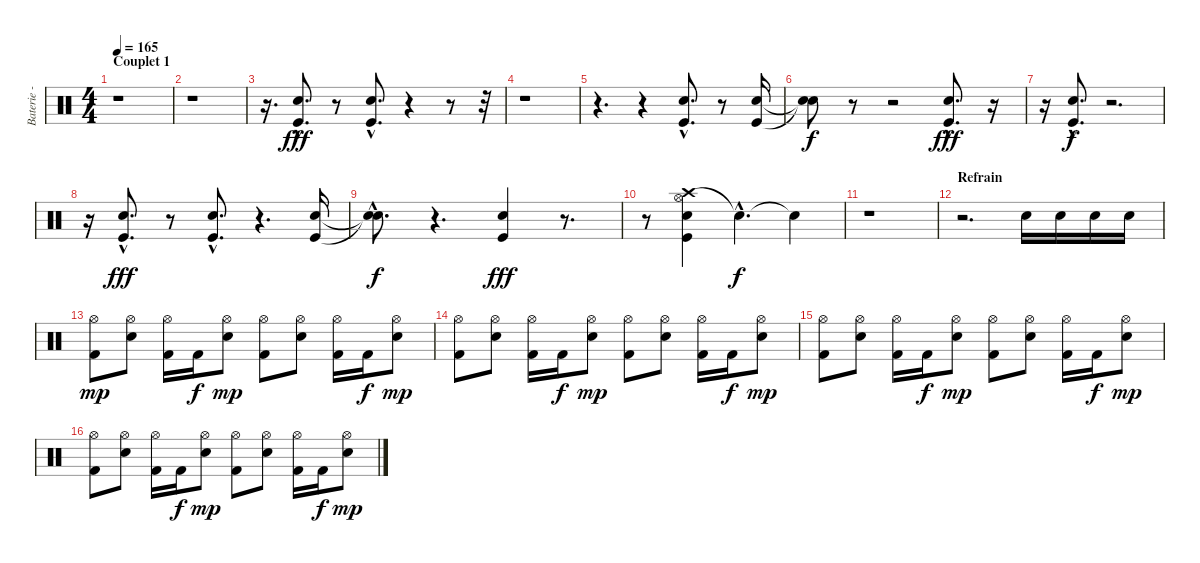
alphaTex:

\track ("Baterie - Guillaume" "Baterie - ") {instrument percussion}
\staff {score}
\articulation defaults
\ts (4 4)
\section ("" "Couplet 1")
\tempo 165
\clef neutral
\ks c
r.1{dy fff} |
r.1 |
r.16{d} ("Snare (hit) 2"{hac} "Kick (hit)"{hac}).8{d} r.8 ("Snare (hit) 2"{hac} "Kick (hit)"{hac}).8{d} r.4 r.8 r.32 |
r.1 |
r.4{d} r.4 ("Snare (hit) 2"{hac} "Kick (hit)"{hac}).8{d} r.8 ("Snare (hit) 2" "Kick (hit)").16 |
("Snare (hit)"{t} "Snare (hit)"{t}).8{dy f} r.8 r.2 ("Snare (hit) 2"{hac} "Kick (hit)"{hac}).8{d dy fff} r.16 |
r.16 ("Snare (hit) 2"{hac} "Kick (hit)"{hac}).8{d dy f} r.2{d} |
r.16 ("Snare (hit) 2"{hac} "Kick (hit)"{hac}).8{d dy fff} r.8 ("Snare (hit) 2"{hac} "Kick (hit)"{hac}).8{d} r.4{d} ("Snare (hit) 2" "Kick (hit)").16 |
("Snare (hit)"{hac t} "Snare (hit)"{hac t}).8{d dy f} r.4{d} ("Snare (hit) 2" "Kick (hit)").4{dy fff} r.8{d} |
r.8 ("Crash high (hit)" "Hi-Hat (open)" "Snare (hit) 2" "Kick (hit)").4 "Snare (hit)"{hac t}.4{d dy f} "Snare (hit)"{t}.4 |
r.1 |
\section ("" "Refrain")
r.2{d} "Electric Snare (hit)".16 "Electric Snare (hit)".16 "Electric Snare (hit)".16 "Electric Snare (hit)".16 |
("Hi-Hat (open)" "Kick (hit) 2").8{dy mp} ("Hi-Hat (open)" "Electric Snare (hit)").8 ("Hi-Hat (open)" "Kick (hit) 2").16 "Kick (hit) 2".16{dy f} ("Hi-Hat (open)" "Electric Snare (hit)").8{dy mp} ("Hi-Hat (open)" "Kick (hit) 2").8 ("Hi-Hat (open)" "Electric Snare (hit)").8 ("Hi-Hat (open)" "Kick (hit) 2").16 "Kick (hit) 2".16{dy f} ("Hi-Hat (open)" "Electric Snare (hit)").8{dy mp} |
("Hi-Hat (open)" "Kick (hit) 2").8 ("Hi-Hat (open)" "Electric Snare (hit)").8 ("Hi-Hat (open)" "Kick (hit) 2").16 "Kick (hit) 2".16{dy f} ("Hi-Hat (open)" "Electric Snare (hit)").8{dy mp} ("Hi-Hat (open)" "Kick (hit) 2").8 ("Hi-Hat (open)" "Electric Snare (hit)").8 ("Hi-Hat (open)" "Kick (hit) 2").16 "Kick (hit) 2".16{dy f} ("Hi-Hat (open)" "Electric Snare (hit)").8{dy mp} |
("Hi-Hat (open)" "Kick (hit) 2").8 ("Hi-Hat (open)" "Electric Snare (hit)").8 ("Hi-Hat (open)" "Kick (hit) 2").16 "Kick (hit) 2".16{dy f} ("Hi-Hat (open)" "Electric Snare (hit)").8{dy mp} ("Hi-Hat (open)" "Kick (hit) 2").8 ("Hi-Hat (open)" "Electric Snare (hit)").8 ("Hi-Hat (open)" "Kick (hit) 2").16 "Kick (hit) 2".16{dy f} ("Hi-Hat (open)" "Electric Snare (hit)").8{dy mp} |
("Hi-Hat (open)" "Kick (hit) 2").8 ("Hi-Hat (open)" "Electric Snare (hit)").8 ("Hi-Hat (open)" "Kick (hit) 2").16 "Kick (hit) 2".16{dy f} ("Hi-Hat (open)" "Electric Snare (hit)").8{dy mp} ("Hi-Hat (open)" "Kick (hit) 2").8 ("Hi-Hat (open)" "Electric Snare (hit)").8 ("Hi-Hat (open)" "Kick (hit) 2").16 "Kick (hit) 2".16{dy f} ("Hi-Hat (open)" "Electric Snare (hit)").8{dy mp}
